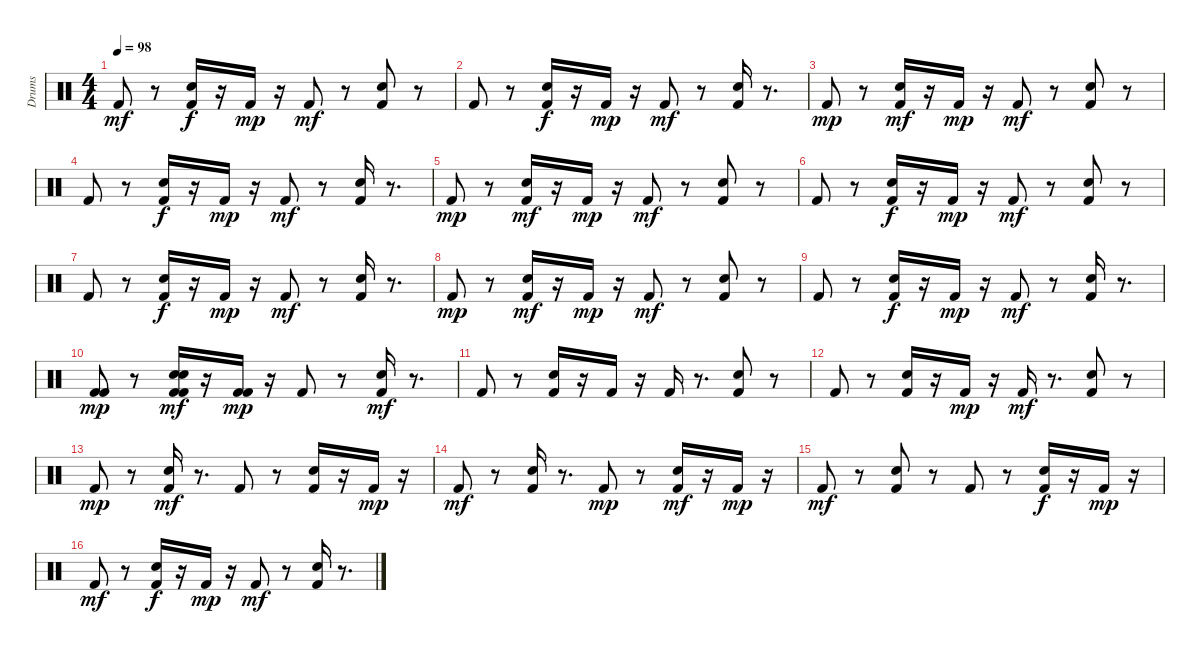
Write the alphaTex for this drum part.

\track ("Drums" "Drums") {instrument percussion}
\staff {score}
\articulation defaults
\ts (4 4)
\tempo 98
\clef neutral
\ks c "Kick (hit) 2".8{dy mf}
r.8 ("Kick (hit) 2" "Snare (hit) 2").16{dy f} r.16 "Kick (hit) 2".16{dy mp} r.16 "Kick (hit) 2".8{dy mf} r.8 ("Kick (hit) 2" "Snare (hit) 2").8 r.8 |
"Kick (hit) 2".8 r.8 ("Kick (hit) 2" "Snare (hit) 2").16{dy f} r.16 "Kick (hit) 2".16{dy mp} r.16 "Kick (hit) 2".8{dy mf} r.8 ("Kick (hit) 2" "Snare (hit) 2").16 r.8{d} |
"Kick (hit) 2".8{dy mp} r.8 ("Kick (hit) 2" "Snare (hit) 2").16{dy mf} r.16 "Kick (hit) 2".16{dy mp} r.16 "Kick (hit) 2".8{dy mf} r.8 ("Kick (hit) 2" "Snare (hit) 2").8 r.8 |
"Kick (hit) 2".8 r.8 ("Kick (hit) 2" "Snare (hit) 2").16{dy f} r.16 "Kick (hit) 2".16{dy mp} r.16 "Kick (hit) 2".8{dy mf} r.8 ("Kick (hit) 2" "Snare (hit) 2").16 r.8{d} |
"Kick (hit) 2".8{dy mp} r.8 ("Kick (hit) 2" "Snare (hit) 2").16{dy mf} r.16 "Kick (hit) 2".16{dy mp} r.16 "Kick (hit) 2".8{dy mf} r.8 ("Kick (hit) 2" "Snare (hit) 2").8 r.8 |
"Kick (hit) 2".8 r.8 ("Kick (hit) 2" "Snare (hit) 2").16{dy f} r.16 "Kick (hit) 2".16{dy mp} r.16 "Kick (hit) 2".8{dy mf} r.8 ("Kick (hit) 2" "Snare (hit) 2").8 r.8 |
"Kick (hit) 2".8 r.8 ("Kick (hit) 2" "Snare (hit) 2").16{dy f} r.16 "Kick (hit) 2".16{dy mp} r.16 "Kick (hit) 2".8{dy mf} r.8 ("Kick (hit) 2" "Snare (hit) 2").16 r.8{d} |
"Kick (hit) 2".8{dy mp} r.8 ("Kick (hit) 2" "Snare (hit) 2").16{dy mf} r.16 "Kick (hit) 2".16{dy mp} r.16 "Kick (hit) 2".8{dy mf} r.8 ("Kick (hit) 2" "Snare (hit) 2").8 r.8 |
"Kick (hit) 2".8 r.8 ("Kick (hit) 2" "Snare (hit) 2").16{dy f} r.16 "Kick (hit) 2".16{dy mp} r.16 "Kick (hit) 2".8{dy mf} r.8 ("Kick (hit) 2" "Snare (hit) 2").16 r.8{d} |
("Kick (hit) 2" "Kick (hit) 2").8{dy mp} r.8 ("Kick (hit) 2" "Snare (hit) 2" "Snare (hit) 2" "Kick (hit) 2").16{dy mf} r.16 ("Kick (hit) 2" "Kick (hit) 2").16{dy mp} r.16 "Kick (hit) 2".8 r.8 ("Snare (hit) 2" "Kick (hit) 2").16{dy mf} r.8{d} |
"Kick (hit) 2".8 r.8 ("Kick (hit) 2" "Snare (hit) 2").16 r.16 "Kick (hit) 2".16 r.16 "Kick (hit) 2".16 r.8{d} ("Kick (hit) 2" "Snare (hit) 2").8 r.8 |
"Kick (hit) 2".8 r.8 ("Kick (hit) 2" "Snare (hit) 2").16 r.16 "Kick (hit) 2".16{dy mp} r.16 "Kick (hit) 2".16{dy mf} r.8{d} ("Kick (hit) 2" "Snare (hit) 2").8 r.8 |
"Kick (hit) 2".8{dy mp} r.8 ("Kick (hit) 2" "Snare (hit) 2").16{dy mf} r.8{d} "Kick (hit) 2".8 r.8 ("Kick (hit) 2" "Snare (hit) 2").16 r.16 "Kick (hit) 2".16{dy mp} r.16 |
"Kick (hit) 2".8{dy mf} r.8 ("Kick (hit) 2" "Snare (hit) 2").16 r.8{d} "Kick (hit) 2".8{dy mp} r.8 ("Kick (hit) 2" "Snare (hit) 2").16{dy mf} r.16 "Kick (hit) 2".16{dy mp} r.16 |
"Kick (hit) 2".8{dy mf} r.8 ("Kick (hit) 2" "Snare (hit) 2").8 r.8 "Kick (hit) 2".8 r.8 ("Kick (hit) 2" "Snare (hit) 2").16{dy f} r.16 "Kick (hit) 2".16{dy mp} r.16 |
"Kick (hit) 2".8{dy mf} r.8 ("Kick (hit) 2" "Snare (hit) 2").16{dy f} r.16 "Kick (hit) 2".16{dy mp} r.16 "Kick (hit) 2".8{dy mf} r.8 ("Kick (hit) 2" "Snare (hit) 2").16 r.8{d}
